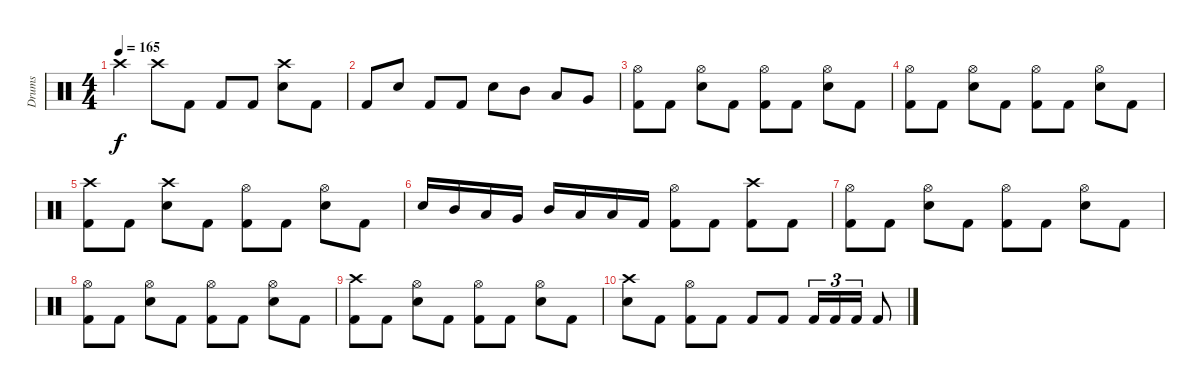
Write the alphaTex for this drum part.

\track ("Drums" "Drums") {instrument percussion}
\staff {score}
\articulation defaults
\ts (4 4)
\tempo 165
\clef neutral
\ks c "Crash high (hit)".4{dy f} "Crash high (hit)".8 "Kick (hit) 2".8 "Kick (hit) 2".8 "Kick (hit) 2".8
("Crash high (hit)" "Snare (hit) 2").8 "Kick (hit) 2".8 |
"Kick (hit) 2".8 "Snare (hit) 2".8 "Kick (hit) 2".8 "Kick (hit) 2".8 "Snare (hit) 2".8 "Mid Tom (hit)".8 "Low Tom (hit)".8 "Very Low Tom (hit)".8 |
("Hi-Hat (open)" "Kick (hit) 2").8 "Kick (hit) 2".8 ("Hi-Hat (open)" "Snare (hit) 2").8 "Kick (hit) 2".8 ("Hi-Hat (open)" "Kick (hit) 2").8 "Kick (hit) 2".8 ("Hi-Hat (open)" "Snare (hit) 2").8 "Kick (hit) 2".8 |
("Hi-Hat (open)" "Kick (hit) 2").8 "Kick (hit) 2".8 ("Hi-Hat (open)" "Snare (hit) 2").8 "Kick (hit) 2".8 ("Hi-Hat (open)" "Kick (hit) 2").8 "Kick (hit) 2".8 ("Hi-Hat (open)" "Snare (hit) 2").8 "Kick (hit) 2".8 |
("Crash high (hit)" "Kick (hit) 2").8 "Kick (hit) 2".8 ("Crash high (hit)" "Snare (hit) 2").8 "Kick (hit) 2".8 ("Hi-Hat (open)" "Kick (hit) 2").8 "Kick (hit) 2".8 ("Hi-Hat (open)" "Snare (hit) 2").8 "Kick (hit) 2".8 |
"Snare (hit) 2".16 "Mid Tom (hit)".16 "Low Tom (hit)".16 "Very Low Tom (hit)".16 "Mid Tom (hit)".16 "Low Tom (hit)".16 "Low Floor Tom (hit)".16 "Kick (hit) 2".16 ("Hi-Hat (open)" "Kick (hit) 2").8 "Kick (hit) 2".8 ("Crash high (hit)" "Kick (hit) 2").8 "Kick (hit) 2".8 |
("Hi-Hat (open)" "Kick (hit) 2").8 "Kick (hit) 2".8 ("Hi-Hat (open)" "Snare (hit) 2").8 "Kick (hit) 2".8 ("Hi-Hat (open)" "Kick (hit) 2").8 "Kick (hit) 2".8 ("Hi-Hat (open)" "Snare (hit) 2").8 "Kick (hit) 2".8 |
("Hi-Hat (open)" "Kick (hit) 2").8 "Kick (hit) 2".8 ("Hi-Hat (open)" "Snare (hit) 2").8 "Kick (hit) 2".8 ("Hi-Hat (open)" "Kick (hit) 2").8 "Kick (hit) 2".8 ("Hi-Hat (open)" "Snare (hit) 2").8 "Kick (hit) 2".8 |
("Crash high (hit)" "Kick (hit) 2").8 "Kick (hit) 2".8 ("Hi-Hat (open)" "Snare (hit) 2").8 "Kick (hit) 2".8 ("Hi-Hat (open)" "Kick (hit) 2").8 "Kick (hit) 2".8 ("Hi-Hat (open)" "Snare (hit) 2").8 "Kick (hit) 2".8 |
("Crash high (hit)" "Snare (hit) 2").8 "Kick (hit) 2".8 ("Hi-Hat (open)" "Kick (hit) 2").8 "Kick (hit) 2".8 "Kick (hit) 2".8 "Kick (hit) 2".8 "Kick (hit) 2".16{tu (3 2)} "Kick (hit) 2".16{tu (3 2)} "Kick (hit) 2".16{tu (3 2)} "Kick (hit) 2".8
